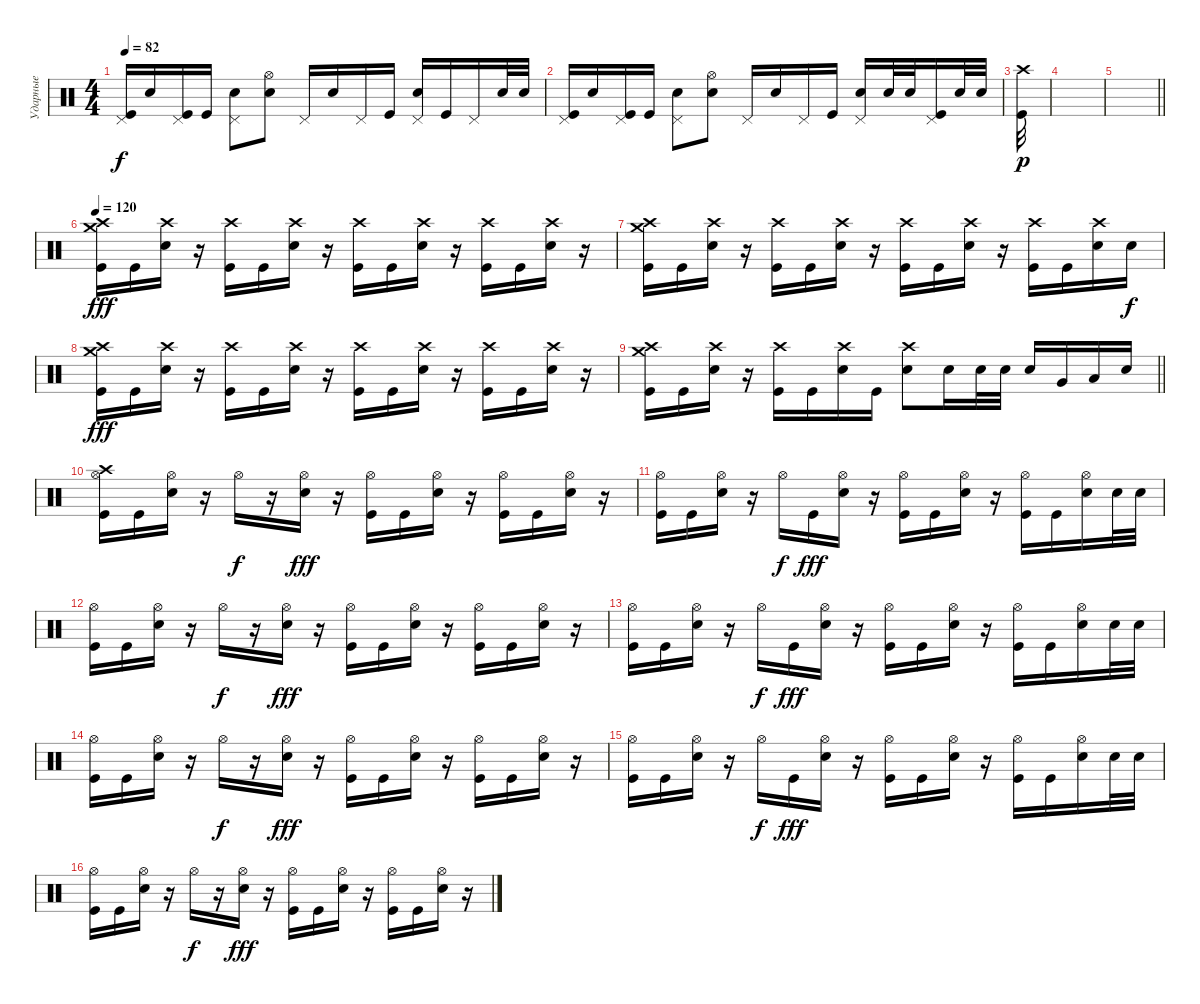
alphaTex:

\track ("Ударные" "Ударные") {instrument percussion}
\staff {score}
\articulation defaults
\ts (4 4)
\tempo 82
\clef neutral
\ks c
("Pedal Hi-Hat (hit)" "Kick (hit)").16{dy f} "Electric Snare (hit)".16 ("Pedal Hi-Hat (hit)" "Kick (hit)").16 "Kick (hit)".16 ("Pedal Hi-Hat (hit)" "Electric Snare (hit)").8 ("Hi-Hat (open)" "Electric Snare (hit)").8 "Pedal Hi-Hat (hit)".16 "Electric Snare (hit)".16 "Pedal Hi-Hat (hit)".16 "Kick (hit)".16 ("Pedal Hi-Hat (hit)" "Electric Snare (hit)").16 "Kick (hit)".16 "Pedal Hi-Hat (hit)".16 "Electric Snare (hit)".32 "Electric Snare (hit)".32 |
("Pedal Hi-Hat (hit)" "Kick (hit)").16 "Electric Snare (hit)".16 ("Pedal Hi-Hat (hit)" "Kick (hit)").16 "Kick (hit)".16 ("Pedal Hi-Hat (hit)" "Electric Snare (hit)").8 ("Hi-Hat (open)" "Electric Snare (hit)").8 "Pedal Hi-Hat (hit)".16 "Electric Snare (hit)".16 "Pedal Hi-Hat (hit)".16 "Kick (hit)".16 ("Pedal Hi-Hat (hit)" "Electric Snare (hit)").16 "Electric Snare (hit)".32 "Electric Snare (hit)".32 ("Pedal Hi-Hat (hit)" "Kick (hit)").16 "Electric Snare (hit)".32 "Electric Snare (hit)".32 |
("Crash high (hit)" "Kick (hit)").32{dy p} |
|
\barLineRight lightlight
|
\tempo 115
\tempo 120
("Crash medium (hit)" "Crash high (hit)" "Kick (hit)").16{dy fff} "Kick (hit)".16 ("Crash high (hit)" "Electric Snare (hit)").16 r.16 ("Crash high (hit)" "Kick (hit)").16 "Kick (hit)".16 ("Crash high (hit)" "Electric Snare (hit)").16 r.16 ("Crash high (hit)" "Kick (hit)").16 "Kick (hit)".16 ("Crash high (hit)" "Electric Snare (hit)").16 r.16 ("Crash high (hit)" "Kick (hit)").16 "Kick (hit)".16 ("Crash high (hit)" "Electric Snare (hit)").16 r.16 |
("Crash medium (hit)" "Crash high (hit)" "Kick (hit)").16 "Kick (hit)".16 ("Crash high (hit)" "Electric Snare (hit)").16 r.16 ("Crash high (hit)" "Kick (hit)").16 "Kick (hit)".16 ("Crash high (hit)" "Electric Snare (hit)").16 r.16 ("Crash high (hit)" "Kick (hit)").16 "Kick (hit)".16 ("Crash high (hit)" "Electric Snare (hit)").16 r.16 ("Crash high (hit)" "Kick (hit)").16 "Kick (hit)".16 ("Crash high (hit)" "Electric Snare (hit)").16 "Electric Snare (hit)".16{dy f} |
("Crash medium (hit)" "Crash high (hit)" "Kick (hit)").16{dy fff} "Kick (hit)".16 ("Crash high (hit)" "Electric Snare (hit)").16 r.16 ("Crash high (hit)" "Kick (hit)").16 "Kick (hit)".16 ("Crash high (hit)" "Electric Snare (hit)").16 r.16 ("Crash high (hit)" "Kick (hit)").16 "Kick (hit)".16 ("Crash high (hit)" "Electric Snare (hit)").16 r.16 ("Crash high (hit)" "Kick (hit)").16 "Kick (hit)".16 ("Crash high (hit)" "Electric Snare (hit)").16 r.16 |
\barLineRight lightlight
("Crash medium (hit)" "Crash high (hit)" "Kick (hit)").16 "Kick (hit)".16 ("Crash high (hit)" "Electric Snare (hit)").16 r.16 ("Crash high (hit)" "Kick (hit)").16 "Kick (hit)".16 ("Crash high (hit)" "Electric Snare (hit)").16 "Kick (hit)".16 ("Crash high (hit)" "Electric Snare (hit)").8 "Electric Snare (hit)".16 "Electric Snare (hit)".32 "Electric Snare (hit)".32 "Electric Snare (hit)".16 "Very Low Tom (hit)".16 "Low Floor Tom (hit)".16 "Electric Snare (hit)".16 |
("Hi-Hat (open)" "Crash high (hit)" "Kick (hit)").16 "Kick (hit)".16 ("Hi-Hat (open)" "Electric Snare (hit)").16 r.16 "Hi-Hat (open)".16{dy f} r.16 ("Hi-Hat (open)" "Electric Snare (hit)").16{dy fff} r.16 ("Hi-Hat (open)" "Kick (hit)").16 "Kick (hit)".16 ("Hi-Hat (open)" "Electric Snare (hit)").16 r.16 ("Hi-Hat (open)" "Kick (hit)").16 "Kick (hit)".16 ("Hi-Hat (open)" "Electric Snare (hit)").16 r.16 |
("Hi-Hat (open)" "Kick (hit)").16 "Kick (hit)".16 ("Hi-Hat (open)" "Electric Snare (hit)").16 r.16 "Hi-Hat (open)".16{dy f} "Kick (hit)".16{dy fff} ("Hi-Hat (open)" "Electric Snare (hit)").16 r.16 ("Hi-Hat (open)" "Kick (hit)").16 "Kick (hit)".16 ("Hi-Hat (open)" "Electric Snare (hit)").16 r.16 ("Hi-Hat (open)" "Kick (hit)").16 "Kick (hit)".16 ("Hi-Hat (open)" "Electric Snare (hit)").16 "Electric Snare (hit)".32 "Electric Snare (hit)".32 |
("Hi-Hat (open)" "Kick (hit)").16 "Kick (hit)".16 ("Hi-Hat (open)" "Electric Snare (hit)").16 r.16 "Hi-Hat (open)".16{dy f} r.16 ("Hi-Hat (open)" "Electric Snare (hit)").16{dy fff} r.16 ("Hi-Hat (open)" "Kick (hit)").16 "Kick (hit)".16 ("Hi-Hat (open)" "Electric Snare (hit)").16 r.16 ("Hi-Hat (open)" "Kick (hit)").16 "Kick (hit)".16 ("Hi-Hat (open)" "Electric Snare (hit)").16 r.16 |
("Hi-Hat (open)" "Kick (hit)").16 "Kick (hit)".16 ("Hi-Hat (open)" "Electric Snare (hit)").16 r.16 "Hi-Hat (open)".16{dy f} "Kick (hit)".16{dy fff} ("Hi-Hat (open)" "Electric Snare (hit)").16 r.16 ("Hi-Hat (open)" "Kick (hit)").16 "Kick (hit)".16 ("Hi-Hat (open)" "Electric Snare (hit)").16 r.16 ("Hi-Hat (open)" "Kick (hit)").16 "Kick (hit)".16 ("Hi-Hat (open)" "Electric Snare (hit)").16 "Electric Snare (hit)".32 "Electric Snare (hit)".32 |
("Hi-Hat (open)" "Kick (hit)").16 "Kick (hit)".16 ("Hi-Hat (open)" "Electric Snare (hit)").16 r.16 "Hi-Hat (open)".16{dy f} r.16 ("Hi-Hat (open)" "Electric Snare (hit)").16{dy fff} r.16 ("Hi-Hat (open)" "Kick (hit)").16 "Kick (hit)".16 ("Hi-Hat (open)" "Electric Snare (hit)").16 r.16 ("Hi-Hat (open)" "Kick (hit)").16 "Kick (hit)".16 ("Hi-Hat (open)" "Electric Snare (hit)").16 r.16 |
("Hi-Hat (open)" "Kick (hit)").16 "Kick (hit)".16 ("Hi-Hat (open)" "Electric Snare (hit)").16 r.16 "Hi-Hat (open)".16{dy f} "Kick (hit)".16{dy fff} ("Hi-Hat (open)" "Electric Snare (hit)").16 r.16 ("Hi-Hat (open)" "Kick (hit)").16 "Kick (hit)".16 ("Hi-Hat (open)" "Electric Snare (hit)").16 r.16 ("Hi-Hat (open)" "Kick (hit)").16 "Kick (hit)".16 ("Hi-Hat (open)" "Electric Snare (hit)").16 "Electric Snare (hit)".32 "Electric Snare (hit)".32 |
("Hi-Hat (open)" "Kick (hit)").16 "Kick (hit)".16 ("Hi-Hat (open)" "Electric Snare (hit)").16 r.16 "Hi-Hat (open)".16{dy f} r.16 ("Hi-Hat (open)" "Electric Snare (hit)").16{dy fff} r.16 ("Hi-Hat (open)" "Kick (hit)").16 "Kick (hit)".16 ("Hi-Hat (open)" "Electric Snare (hit)").16 r.16 ("Hi-Hat (open)" "Kick (hit)").16 "Kick (hit)".16 ("Hi-Hat (open)" "Electric Snare (hit)").16 r.16
